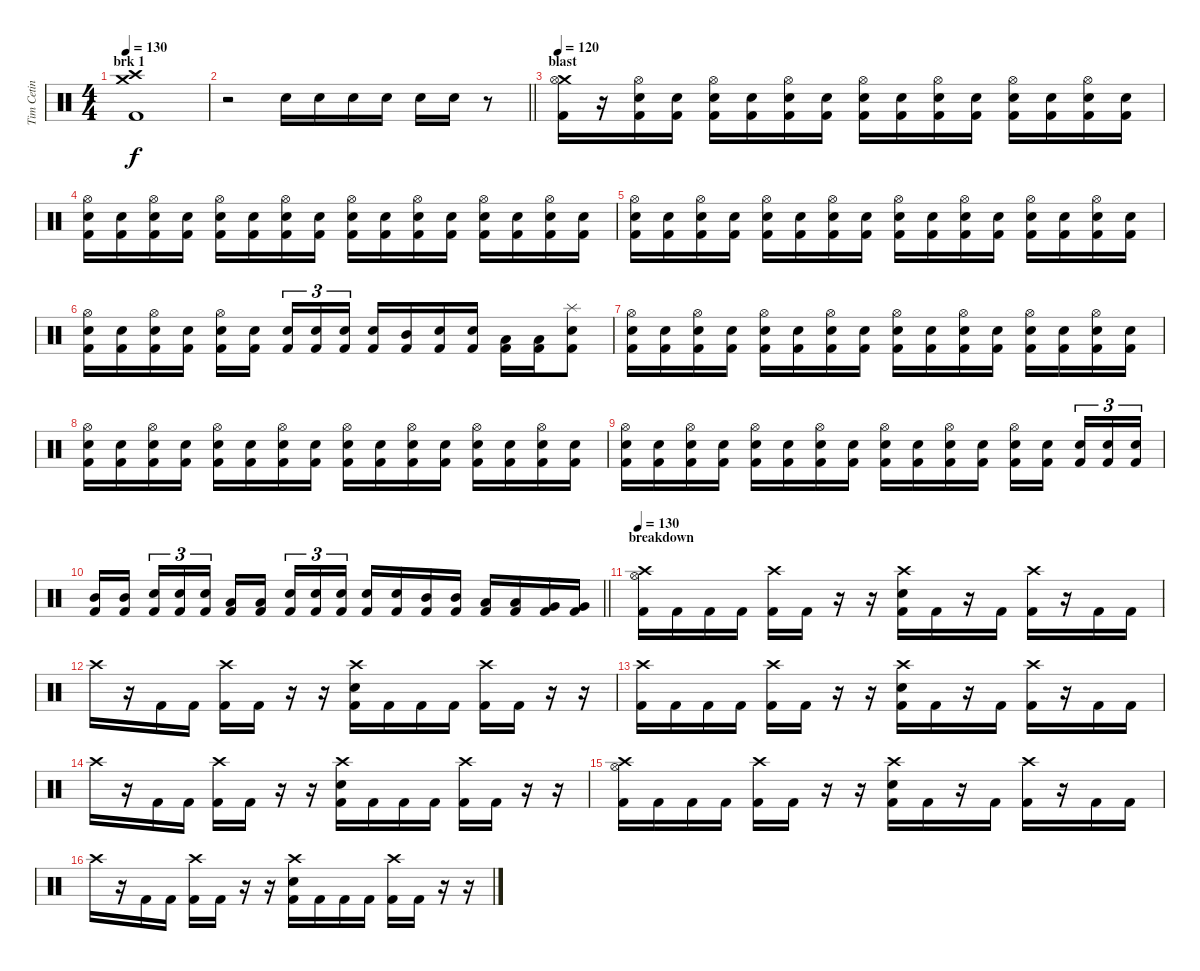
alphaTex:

\track ("Tim Cetin" "Tim Cetin") {instrument percussion}
\staff {score}
\articulation defaults
\ts (4 4)
\section ("" "brk 1")
\tempo 130
\clef neutral
\ks c
("Crash medium (hit)" "Crash high (hit)" "Kick (hit) 2").1{dy f} |
\barLineRight lightlight
r.2 "Electric Snare (hit)".16 "Electric Snare (hit)".16 "Electric Snare (hit)".16 "Electric Snare (hit)".16 "Electric Snare (hit)".16 "Electric Snare (hit)".16 r.8 |
\section ("" "blast")
\tempo 120
("Crash medium (hit)" "Hi-Hat (open)" "Kick (hit) 2").16 r.16 ("Hi-Hat (open)" "Electric Snare (hit)" "Kick (hit) 2").16 ("Electric Snare (hit)" "Kick (hit) 2").16 ("Hi-Hat (open)" "Electric Snare (hit)" "Kick (hit) 2").16 ("Electric Snare (hit)" "Kick (hit) 2").16 ("Hi-Hat (open)" "Electric Snare (hit)" "Kick (hit) 2").16 ("Electric Snare (hit)" "Kick (hit) 2").16 ("Hi-Hat (open)" "Electric Snare (hit)" "Kick (hit) 2").16 ("Electric Snare (hit)" "Kick (hit) 2").16 ("Hi-Hat (open)" "Electric Snare (hit)" "Kick (hit) 2").16 ("Electric Snare (hit)" "Kick (hit) 2").16 ("Hi-Hat (open)" "Electric Snare (hit)" "Kick (hit) 2").16 ("Electric Snare (hit)" "Kick (hit) 2").16 ("Hi-Hat (open)" "Electric Snare (hit)" "Kick (hit) 2").16 ("Electric Snare (hit)" "Kick (hit) 2").16 |
("Hi-Hat (open)" "Electric Snare (hit)" "Kick (hit) 2").16 ("Electric Snare (hit)" "Kick (hit) 2").16 ("Hi-Hat (open)" "Electric Snare (hit)" "Kick (hit) 2").16 ("Electric Snare (hit)" "Kick (hit) 2").16 ("Hi-Hat (open)" "Electric Snare (hit)" "Kick (hit) 2").16 ("Electric Snare (hit)" "Kick (hit) 2").16 ("Hi-Hat (open)" "Electric Snare (hit)" "Kick (hit) 2").16 ("Electric Snare (hit)" "Kick (hit) 2").16 ("Hi-Hat (open)" "Electric Snare (hit)" "Kick (hit) 2").16 ("Electric Snare (hit)" "Kick (hit) 2").16 ("Hi-Hat (open)" "Electric Snare (hit)" "Kick (hit) 2").16 ("Electric Snare (hit)" "Kick (hit) 2").16 ("Hi-Hat (open)" "Electric Snare (hit)" "Kick (hit) 2").16 ("Electric Snare (hit)" "Kick (hit) 2").16 ("Hi-Hat (open)" "Electric Snare (hit)" "Kick (hit) 2").16 ("Electric Snare (hit)" "Kick (hit) 2").16 |
("Hi-Hat (open)" "Electric Snare (hit)" "Kick (hit) 2").16 ("Electric Snare (hit)" "Kick (hit) 2").16 ("Hi-Hat (open)" "Electric Snare (hit)" "Kick (hit) 2").16 ("Electric Snare (hit)" "Kick (hit) 2").16 ("Hi-Hat (open)" "Electric Snare (hit)" "Kick (hit) 2").16 ("Electric Snare (hit)" "Kick (hit) 2").16 ("Hi-Hat (open)" "Electric Snare (hit)" "Kick (hit) 2").16 ("Electric Snare (hit)" "Kick (hit) 2").16 ("Hi-Hat (open)" "Electric Snare (hit)" "Kick (hit) 2").16 ("Electric Snare (hit)" "Kick (hit) 2").16 ("Hi-Hat (open)" "Electric Snare (hit)" "Kick (hit) 2").16 ("Electric Snare (hit)" "Kick (hit) 2").16 ("Hi-Hat (open)" "Electric Snare (hit)" "Kick (hit) 2").16 ("Electric Snare (hit)" "Kick (hit) 2").16 ("Hi-Hat (open)" "Electric Snare (hit)" "Kick (hit) 2").16 ("Electric Snare (hit)" "Kick (hit) 2").16 |
("Hi-Hat (open)" "Electric Snare (hit)" "Kick (hit) 2").16 ("Electric Snare (hit)" "Kick (hit) 2").16 ("Hi-Hat (open)" "Electric Snare (hit)" "Kick (hit) 2").16 ("Electric Snare (hit)" "Kick (hit) 2").16 ("Hi-Hat (open)" "Electric Snare (hit)" "Kick (hit) 2").16 ("Electric Snare (hit)" "Kick (hit) 2").16{beam splitsecondary} ("Electric Snare (hit)" "Kick (hit) 2").16{tu (3 2)} ("Electric Snare (hit)" "Kick (hit) 2").16{tu (3 2)} ("Electric Snare (hit)" "Kick (hit) 2").16{tu (3 2)} ("Electric Snare (hit)" "Kick (hit) 2").16 ("Mid Tom (hit)" "Kick (hit) 2").16 ("Electric Snare (hit)" "Kick (hit) 2").16 ("Electric Snare (hit)" "Kick (hit) 2").16 ("Low Tom (hit)" "Kick (hit) 2").16 ("Low Tom (hit)" "Kick (hit) 2").16 ("Splash (hit)" "Electric Snare (hit)" "Kick (hit) 2").8 |
("Hi-Hat (open)" "Electric Snare (hit)" "Kick (hit) 2").16 ("Electric Snare (hit)" "Kick (hit) 2").16 ("Hi-Hat (open)" "Electric Snare (hit)" "Kick (hit) 2").16 ("Electric Snare (hit)" "Kick (hit) 2").16 ("Hi-Hat (open)" "Electric Snare (hit)" "Kick (hit) 2").16 ("Electric Snare (hit)" "Kick (hit) 2").16 ("Hi-Hat (open)" "Electric Snare (hit)" "Kick (hit) 2").16 ("Electric Snare (hit)" "Kick (hit) 2").16 ("Hi-Hat (open)" "Electric Snare (hit)" "Kick (hit) 2").16 ("Electric Snare (hit)" "Kick (hit) 2").16 ("Hi-Hat (open)" "Electric Snare (hit)" "Kick (hit) 2").16 ("Electric Snare (hit)" "Kick (hit) 2").16 ("Hi-Hat (open)" "Electric Snare (hit)" "Kick (hit) 2").16 ("Electric Snare (hit)" "Kick (hit) 2").16 ("Hi-Hat (open)" "Electric Snare (hit)" "Kick (hit) 2").16 ("Electric Snare (hit)" "Kick (hit) 2").16 |
("Hi-Hat (open)" "Electric Snare (hit)" "Kick (hit) 2").16 ("Electric Snare (hit)" "Kick (hit) 2").16 ("Hi-Hat (open)" "Electric Snare (hit)" "Kick (hit) 2").16 ("Electric Snare (hit)" "Kick (hit) 2").16 ("Hi-Hat (open)" "Electric Snare (hit)" "Kick (hit) 2").16 ("Electric Snare (hit)" "Kick (hit) 2").16 ("Hi-Hat (open)" "Electric Snare (hit)" "Kick (hit) 2").16 ("Electric Snare (hit)" "Kick (hit) 2").16 ("Hi-Hat (open)" "Electric Snare (hit)" "Kick (hit) 2").16 ("Electric Snare (hit)" "Kick (hit) 2").16 ("Hi-Hat (open)" "Electric Snare (hit)" "Kick (hit) 2").16 ("Electric Snare (hit)" "Kick (hit) 2").16 ("Hi-Hat (open)" "Electric Snare (hit)" "Kick (hit) 2").16 ("Electric Snare (hit)" "Kick (hit) 2").16 ("Hi-Hat (open)" "Electric Snare (hit)" "Kick (hit) 2").16 ("Electric Snare (hit)" "Kick (hit) 2").16 |
("Hi-Hat (open)" "Electric Snare (hit)" "Kick (hit) 2").16 ("Electric Snare (hit)" "Kick (hit) 2").16 ("Hi-Hat (open)" "Electric Snare (hit)" "Kick (hit) 2").16 ("Electric Snare (hit)" "Kick (hit) 2").16 ("Hi-Hat (open)" "Electric Snare (hit)" "Kick (hit) 2").16 ("Electric Snare (hit)" "Kick (hit) 2").16 ("Hi-Hat (open)" "Electric Snare (hit)" "Kick (hit) 2").16 ("Electric Snare (hit)" "Kick (hit) 2").16 ("Hi-Hat (open)" "Electric Snare (hit)" "Kick (hit) 2").16 ("Electric Snare (hit)" "Kick (hit) 2").16 ("Hi-Hat (open)" "Electric Snare (hit)" "Kick (hit) 2").16 ("Electric Snare (hit)" "Kick (hit) 2").16 ("Hi-Hat (open)" "Electric Snare (hit)" "Kick (hit) 2").16 ("Electric Snare (hit)" "Kick (hit) 2").16{beam splitsecondary} ("Electric Snare (hit)" "Kick (hit) 2").16{tu (3 2)} ("Electric Snare (hit)" "Kick (hit) 2").16{tu (3 2)} ("Electric Snare (hit)" "Kick (hit) 2").16{tu (3 2)} |
\barLineRight lightlight
("Mid Tom (hit)" "Kick (hit) 2").16 ("Mid Tom (hit)" "Kick (hit) 2").16{beam splitsecondary} ("Electric Snare (hit)" "Kick (hit) 2").16{tu (3 2)} ("Electric Snare (hit)" "Kick (hit) 2").16{tu (3 2)} ("Electric Snare (hit)" "Kick (hit) 2").16{tu (3 2)} ("Low Tom (hit)" "Kick (hit) 2").16 ("Low Tom (hit)" "Kick (hit) 2").16{beam splitsecondary} ("Electric Snare (hit)" "Kick (hit) 2").16{tu (3 2)} ("Electric Snare (hit)" "Kick (hit) 2").16{tu (3 2)} ("Electric Snare (hit)" "Kick (hit) 2").16{tu (3 2)} ("Electric Snare (hit)" "Kick (hit) 2").16 ("Electric Snare (hit)" "Kick (hit) 2").16 ("Mid Tom (hit)" "Kick (hit) 2").16 ("Mid Tom (hit)" "Kick (hit) 2").16 ("Low Tom (hit)" "Kick (hit) 2").16 ("Low Tom (hit)" "Kick (hit) 2").16 ("Very Low Tom (hit)" "Kick (hit) 2").16 ("Very Low Tom (hit)" "Kick (hit) 2").16 |
\section ("" "breakdown")
\tempo 130
("Hi-Hat (open)" "Crash high (hit)" "Kick (hit) 2").16 "Kick (hit) 2".16 "Kick (hit) 2".16 "Kick (hit) 2".16 ("Crash high (hit)" "Kick (hit) 2").16 "Kick (hit) 2".16 r.16 r.16 ("Crash high (hit)" "Electric Snare (hit)" "Kick (hit) 2").16 "Kick (hit) 2".16 r.16 "Kick (hit) 2".16 ("Crash high (hit)" "Kick (hit) 2").16 r.16 "Kick (hit) 2".16 "Kick (hit) 2".16 |
"Crash high (hit)".16 r.16 "Kick (hit) 2".16 "Kick (hit) 2".16 ("Crash high (hit)" "Kick (hit) 2").16 "Kick (hit) 2".16 r.16 r.16 ("Crash high (hit)" "Electric Snare (hit)" "Kick (hit) 2").16 "Kick (hit) 2".16 "Kick (hit) 2".16 "Kick (hit) 2".16 ("Crash high (hit)" "Kick (hit) 2").16 "Kick (hit) 2".16 r.16 r.16 |
("Crash high (hit)" "Kick (hit) 2").16 "Kick (hit) 2".16 "Kick (hit) 2".16 "Kick (hit) 2".16 ("Crash high (hit)" "Kick (hit) 2").16 "Kick (hit) 2".16 r.16 r.16 ("Crash high (hit)" "Electric Snare (hit)" "Kick (hit) 2").16 "Kick (hit) 2".16 r.16 "Kick (hit) 2".16 ("Crash high (hit)" "Kick (hit) 2").16 r.16 "Kick (hit) 2".16 "Kick (hit) 2".16 |
"Crash high (hit)".16 r.16 "Kick (hit) 2".16 "Kick (hit) 2".16 ("Crash high (hit)" "Kick (hit) 2").16 "Kick (hit) 2".16 r.16 r.16 ("Crash high (hit)" "Electric Snare (hit)" "Kick (hit) 2").16 "Kick (hit) 2".16 "Kick (hit) 2".16 "Kick (hit) 2".16 ("Crash high (hit)" "Kick (hit) 2").16 "Kick (hit) 2".16 r.16 r.16 |
("Hi-Hat (open)" "Crash high (hit)" "Kick (hit) 2").16 "Kick (hit) 2".16 "Kick (hit) 2".16 "Kick (hit) 2".16 ("Crash high (hit)" "Kick (hit) 2").16 "Kick (hit) 2".16 r.16 r.16 ("Crash high (hit)" "Electric Snare (hit)" "Kick (hit) 2").16 "Kick (hit) 2".16 r.16 "Kick (hit) 2".16 ("Crash high (hit)" "Kick (hit) 2").16 r.16 "Kick (hit) 2".16 "Kick (hit) 2".16 |
"Crash high (hit)".16 r.16 "Kick (hit) 2".16 "Kick (hit) 2".16 ("Crash high (hit)" "Kick (hit) 2").16 "Kick (hit) 2".16 r.16 r.16 ("Crash high (hit)" "Electric Snare (hit)" "Kick (hit) 2").16 "Kick (hit) 2".16 "Kick (hit) 2".16 "Kick (hit) 2".16 ("Crash high (hit)" "Kick (hit) 2").16 "Kick (hit) 2".16 r.16 r.16
